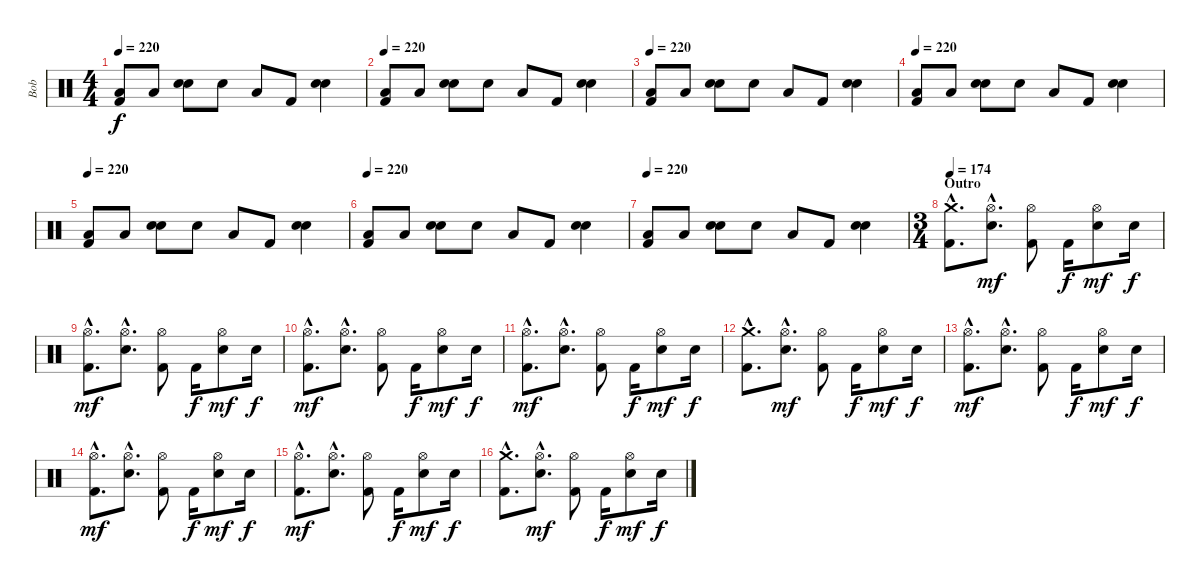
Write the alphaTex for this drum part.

\track ("Bob" "Bob") {instrument percussion}
\staff {score}
\articulation defaults
\ts (4 4)
\tempo 220
\clef neutral
\ks c
("Low Floor Tom (hit)" "Kick (hit) 2").8{dy f} "Low Floor Tom (hit)".8 ("Hand Clap (hit)" "Electric Snare (hit)").8 "Hand Clap (hit)".8 "Low Floor Tom (hit)".8 "Kick (hit) 2".8 ("Hand Clap (hit)" "Electric Snare (hit)").4 |
\tempo 220
("Low Floor Tom (hit)" "Kick (hit) 2").8 "Low Floor Tom (hit)".8 ("Hand Clap (hit)" "Electric Snare (hit)").8 "Hand Clap (hit)".8 "Low Floor Tom (hit)".8 "Kick (hit) 2".8 ("Hand Clap (hit)" "Electric Snare (hit)").4 |
\tempo 220
("Low Floor Tom (hit)" "Kick (hit) 2").8 "Low Floor Tom (hit)".8 ("Hand Clap (hit)" "Electric Snare (hit)").8 "Hand Clap (hit)".8 "Low Floor Tom (hit)".8 "Kick (hit) 2".8 ("Hand Clap (hit)" "Electric Snare (hit)").4 |
\tempo 220
("Low Floor Tom (hit)" "Kick (hit) 2").8 "Low Floor Tom (hit)".8 ("Hand Clap (hit)" "Electric Snare (hit)").8 "Hand Clap (hit)".8 "Low Floor Tom (hit)".8 "Kick (hit) 2".8 ("Hand Clap (hit)" "Electric Snare (hit)").4 |
\tempo 220
("Low Floor Tom (hit)" "Kick (hit) 2").8 "Low Floor Tom (hit)".8 ("Hand Clap (hit)" "Electric Snare (hit)").8 "Hand Clap (hit)".8 "Low Floor Tom (hit)".8 "Kick (hit) 2".8 ("Hand Clap (hit)" "Electric Snare (hit)").4 |
\tempo 220
("Low Floor Tom (hit)" "Kick (hit) 2").8 "Low Floor Tom (hit)".8 ("Hand Clap (hit)" "Electric Snare (hit)").8 "Hand Clap (hit)".8 "Low Floor Tom (hit)".8 "Kick (hit) 2".8 ("Hand Clap (hit)" "Electric Snare (hit)").4 |
\tempo 220
("Low Floor Tom (hit)" "Kick (hit) 2").8 "Low Floor Tom (hit)".8 ("Hand Clap (hit)" "Electric Snare (hit)").8 "Hand Clap (hit)".8 "Low Floor Tom (hit)".8 "Kick (hit) 2".8 ("Hand Clap (hit)" "Electric Snare (hit)").4 |
\ts (3 4)
\section ("" "Outro")
\tempo 174
("Crash medium (hit)"{hac} "Kick (hit) 2"{hac}).8{d} ("Hi-Hat (open)"{hac} "Electric Snare (hit)"{hac}).8{d dy mf} ("Hi-Hat (open)" "Kick (hit) 2").8 "Kick (hit) 2".16{dy f} ("Hi-Hat (open)" "Electric Snare (hit)").8{dy mf} "Electric Snare (hit)".16{dy f} |
("Hi-Hat (open)"{hac} "Kick (hit) 2"{hac}).8{d dy mf} ("Hi-Hat (open)"{hac} "Electric Snare (hit)"{hac}).8{d} ("Hi-Hat (open)" "Kick (hit) 2").8 "Kick (hit) 2".16{dy f} ("Hi-Hat (open)" "Electric Snare (hit)").8{dy mf} "Electric Snare (hit)".16{dy f} |
("Hi-Hat (open)"{hac} "Kick (hit) 2"{hac}).8{d dy mf} ("Hi-Hat (open)"{hac} "Electric Snare (hit)"{hac}).8{d} ("Hi-Hat (open)" "Kick (hit) 2").8 "Kick (hit) 2".16{dy f} ("Hi-Hat (open)" "Electric Snare (hit)").8{dy mf} "Electric Snare (hit)".16{dy f} |
("Hi-Hat (open)"{hac} "Kick (hit) 2"{hac}).8{d dy mf} ("Hi-Hat (open)"{hac} "Electric Snare (hit)"{hac}).8{d} ("Hi-Hat (open)" "Kick (hit) 2").8 "Kick (hit) 2".16{dy f} ("Hi-Hat (open)" "Electric Snare (hit)").8{dy mf} "Electric Snare (hit)".16{dy f} |
("Crash medium (hit)"{hac} "Kick (hit) 2"{hac}).8{d} ("Hi-Hat (open)"{hac} "Electric Snare (hit)"{hac}).8{d dy mf} ("Hi-Hat (open)" "Kick (hit) 2").8 "Kick (hit) 2".16{dy f} ("Hi-Hat (open)" "Electric Snare (hit)").8{dy mf} "Electric Snare (hit)".16{dy f} |
("Hi-Hat (open)"{hac} "Kick (hit) 2"{hac}).8{d dy mf} ("Hi-Hat (open)"{hac} "Electric Snare (hit)"{hac}).8{d} ("Hi-Hat (open)" "Kick (hit) 2").8 "Kick (hit) 2".16{dy f} ("Hi-Hat (open)" "Electric Snare (hit)").8{dy mf} "Electric Snare (hit)".16{dy f} |
("Hi-Hat (open)"{hac} "Kick (hit) 2"{hac}).8{d dy mf} ("Hi-Hat (open)"{hac} "Electric Snare (hit)"{hac}).8{d} ("Hi-Hat (open)" "Kick (hit) 2").8 "Kick (hit) 2".16{dy f} ("Hi-Hat (open)" "Electric Snare (hit)").8{dy mf} "Electric Snare (hit)".16{dy f} |
("Hi-Hat (open)"{hac} "Kick (hit) 2"{hac}).8{d dy mf} ("Hi-Hat (open)"{hac} "Electric Snare (hit)"{hac}).8{d} ("Hi-Hat (open)" "Kick (hit) 2").8 "Kick (hit) 2".16{dy f} ("Hi-Hat (open)" "Electric Snare (hit)").8{dy mf} "Electric Snare (hit)".16{dy f} |
("Crash medium (hit)"{hac} "Kick (hit) 2"{hac}).8{d} ("Hi-Hat (open)"{hac} "Electric Snare (hit)"{hac}).8{d dy mf} ("Hi-Hat (open)" "Kick (hit) 2").8 "Kick (hit) 2".16{dy f} ("Hi-Hat (open)" "Electric Snare (hit)").8{dy mf} "Electric Snare (hit)".16{dy f}
